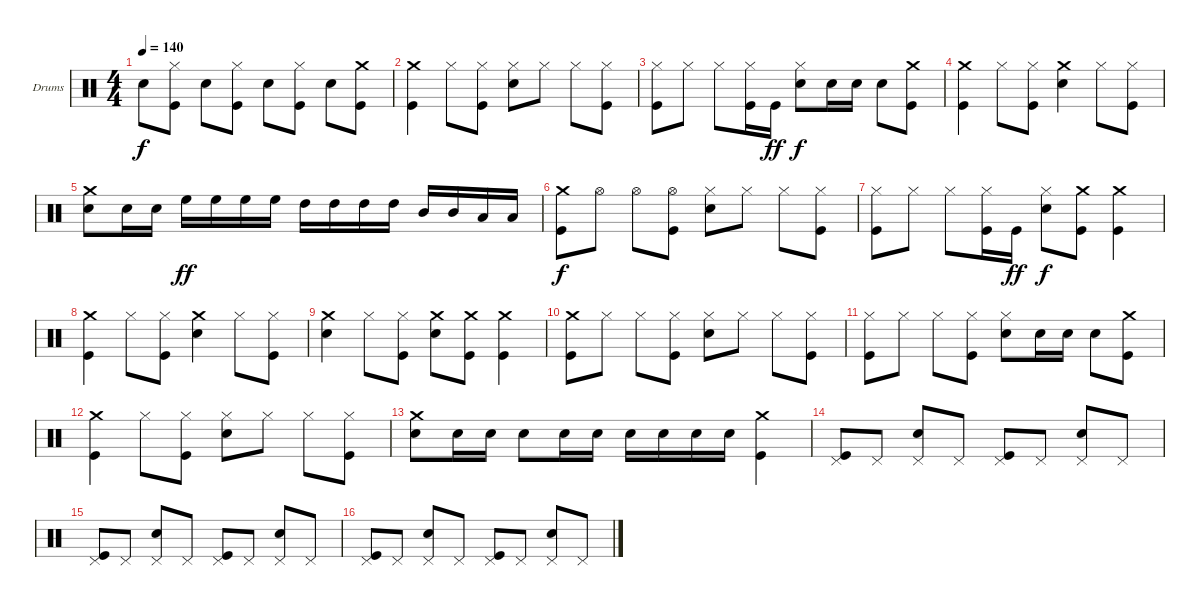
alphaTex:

\defaultSystemsLayout 4
\bracketExtendMode groupsimilarinstruments
\firstSystemTrackNameOrientation horizontal
\otherSystemsTrackNameOrientation horizontal
\track ("Drumkit" "Drums") {instrument percussion}
\staff {score}
\articulation defaults
\ts (4 4)
\tempo 140
\clef neutral
\ks c "Snare (hit) 2".8{dy f}
("Hi-Hat (closed)" "Kick (hit)").8 "Snare (hit) 2".8 ("Hi-Hat (closed)" "Kick (hit)").8 "Snare (hit) 2".8 ("Hi-Hat (closed)" "Kick (hit)").8 "Snare (hit) 2".8 ("Crash medium (hit)" "Kick (hit)").8 |
("Crash medium (hit)" "Kick (hit)").4 "Hi-Hat (closed)".8 ("Hi-Hat (closed)" "Kick (hit)").8 ("Hi-Hat (closed)" "Snare (hit) 2").8 "Hi-Hat (closed)".8 "Hi-Hat (closed)".8 ("Hi-Hat (closed)" "Kick (hit)").8 |
("Hi-Hat (closed)" "Kick (hit)").8 "Hi-Hat (closed)".8 "Hi-Hat (closed)".8 ("Hi-Hat (closed)" "Kick (hit)").16 "Kick (hit)".16{dy ff} ("Hi-Hat (closed)" "Snare (hit) 2").8{dy f} "Snare (hit) 2".16 "Snare (hit) 2".16 "Snare (hit) 2".8 ("Crash medium (hit)" "Kick (hit)").8 |
("Crash medium (hit)" "Kick (hit)").4 "Hi-Hat (closed)".8 ("Hi-Hat (closed)" "Kick (hit)").8 ("Crash medium (hit)" "Snare (hit) 2").4 "Hi-Hat (closed)".8 ("Hi-Hat (closed)" "Kick (hit)").8 |
("Crash medium (hit)" "Snare (hit) 2").8 "Snare (hit) 2".16 "Snare (hit) 2".16 "High Floor Tom (hit)".16{dy ff} "High Floor Tom (hit)".16 "High Floor Tom (hit)".16 "High Floor Tom (hit)".16 "High Tom (hit)".16 "High Tom (hit)".16 "High Tom (hit)".16 "High Tom (hit)".16 "Mid Tom (hit)".16 "Mid Tom (hit)".16 "Low Tom (hit)".16 "Low Tom (hit)".16 |
("Crash medium (hit)" "Kick (hit)").8{dy f} "Hi-Hat (open)".8 "Hi-Hat (open)".8 ("Hi-Hat (open)" "Kick (hit)").8 ("Hi-Hat (closed)" "Snare (hit) 2").8 "Hi-Hat (closed)".8 "Hi-Hat (closed)".8 ("Hi-Hat (closed)" "Kick (hit)").8 |
("Hi-Hat (closed)" "Kick (hit)").8 "Hi-Hat (closed)".8 "Hi-Hat (closed)".8 ("Hi-Hat (closed)" "Kick (hit)").16 "Kick (hit)".16{dy ff} ("Hi-Hat (closed)" "Snare (hit) 2").8{dy f} ("Crash medium (hit)" "Kick (hit)").8 ("Crash medium (hit)" "Kick (hit)").4 |
("Crash medium (hit)" "Kick (hit)").4 "Hi-Hat (closed)".8 ("Hi-Hat (closed)" "Kick (hit)").8 ("Crash medium (hit)" "Snare (hit) 2").4 "Hi-Hat (closed)".8 ("Hi-Hat (closed)" "Kick (hit)").8 |
("Crash medium (hit)" "Snare (hit) 2").4 "Hi-Hat (closed)".8 ("Hi-Hat (closed)" "Kick (hit)").8 ("Crash medium (hit)" "Snare (hit) 2").8 ("Crash medium (hit)" "Kick (hit)").8 ("Crash medium (hit)" "Kick (hit)").4 |
("Crash medium (hit)" "Kick (hit)").8 "Hi-Hat (closed)".8 "Hi-Hat (closed)".8 ("Hi-Hat (closed)" "Kick (hit)").8 ("Hi-Hat (closed)" "Snare (hit) 2").8 "Hi-Hat (closed)".8 "Hi-Hat (closed)".8 ("Hi-Hat (closed)" "Kick (hit)").8 |
("Hi-Hat (closed)" "Kick (hit)").8 "Hi-Hat (closed)".8 "Hi-Hat (closed)".8 ("Hi-Hat (closed)" "Kick (hit)").8 ("Hi-Hat (closed)" "Snare (hit) 2").8 "Snare (hit) 2".16 "Snare (hit) 2".16 "Snare (hit) 2".8 ("Crash medium (hit)" "Kick (hit)").8 |
("Crash medium (hit)" "Kick (hit)").4 "Hi-Hat (closed)".8 ("Hi-Hat (closed)" "Kick (hit)").8 ("Hi-Hat (closed)" "Snare (hit) 2").8 "Hi-Hat (closed)".8 "Hi-Hat (closed)".8 ("Hi-Hat (closed)" "Kick (hit)").8 |
("Crash medium (hit)" "Snare (hit) 2").8 "Snare (hit) 2".16 "Snare (hit) 2".16 "Snare (hit) 2".8 "Snare (hit) 2".16 "Snare (hit) 2".16 "Snare (hit) 2".16 "Snare (hit) 2".16 "Snare (hit) 2".16 "Snare (hit) 2".16 ("Crash medium (hit)" "Kick (hit)").4 |
("Pedal Hi-Hat (hit)" "Kick (hit)").8 "Pedal Hi-Hat (hit)".8 ("Pedal Hi-Hat (hit)" "Snare (hit) 2").8 "Pedal Hi-Hat (hit)".8 ("Pedal Hi-Hat (hit)" "Kick (hit)").8 "Pedal Hi-Hat (hit)".8 ("Pedal Hi-Hat (hit)" "Snare (hit) 2").8 "Pedal Hi-Hat (hit)".8 |
("Pedal Hi-Hat (hit)" "Kick (hit)").8 "Pedal Hi-Hat (hit)".8 ("Pedal Hi-Hat (hit)" "Snare (hit) 2").8 "Pedal Hi-Hat (hit)".8 ("Pedal Hi-Hat (hit)" "Kick (hit)").8 "Pedal Hi-Hat (hit)".8 ("Pedal Hi-Hat (hit)" "Snare (hit) 2").8 "Pedal Hi-Hat (hit)".8 |
("Pedal Hi-Hat (hit)" "Kick (hit)").8 "Pedal Hi-Hat (hit)".8 ("Pedal Hi-Hat (hit)" "Snare (hit) 2").8 "Pedal Hi-Hat (hit)".8 ("Pedal Hi-Hat (hit)" "Kick (hit)").8 "Pedal Hi-Hat (hit)".8 ("Pedal Hi-Hat (hit)" "Snare (hit) 2").8 "Pedal Hi-Hat (hit)".8
